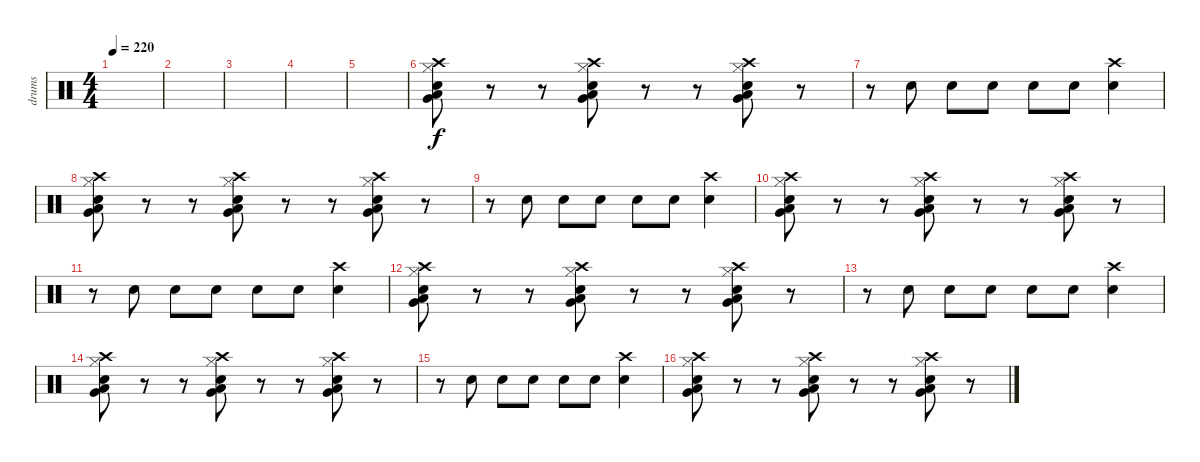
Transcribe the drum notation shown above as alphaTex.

\track ("drums" "drums") {instrument percussion}
\staff {score}
\articulation defaults
\ts (4 4)
\tempo 220
\clef neutral
\ks c
|
|
|
|
|
("Crash high (hit)" "Very Low Tom (hit)" "Low Floor Tom (hit)" "Electric Snare (hit)" "Hi-Hat (closed)").8 r.8 r.8 ("Crash high (hit)" "Very Low Tom (hit)" "Low Floor Tom (hit)" "Electric Snare (hit)" "Hi-Hat (closed)").8 r.8 r.8 ("Crash high (hit)" "Very Low Tom (hit)" "Low Floor Tom (hit)" "Electric Snare (hit)" "Hi-Hat (closed)").8 r.8 |
r.8 "Electric Snare (hit)".8 "Electric Snare (hit)".8 "Electric Snare (hit)".8 "Electric Snare (hit)".8 "Electric Snare (hit)".8 ("Electric Snare (hit)" "Crash high (hit)").4 |
("Crash high (hit)" "Very Low Tom (hit)" "Low Floor Tom (hit)" "Electric Snare (hit)" "Hi-Hat (closed)").8 r.8 r.8 ("Crash high (hit)" "Very Low Tom (hit)" "Low Floor Tom (hit)" "Electric Snare (hit)" "Hi-Hat (closed)").8 r.8 r.8 ("Crash high (hit)" "Very Low Tom (hit)" "Low Floor Tom (hit)" "Electric Snare (hit)" "Hi-Hat (closed)").8 r.8 |
r.8 "Electric Snare (hit)".8 "Electric Snare (hit)".8 "Electric Snare (hit)".8 "Electric Snare (hit)".8 "Electric Snare (hit)".8 ("Electric Snare (hit)" "Crash high (hit)").4 |
("Crash high (hit)" "Very Low Tom (hit)" "Low Floor Tom (hit)" "Electric Snare (hit)" "Hi-Hat (closed)").8 r.8 r.8 ("Crash high (hit)" "Very Low Tom (hit)" "Low Floor Tom (hit)" "Electric Snare (hit)" "Hi-Hat (closed)").8 r.8 r.8 ("Crash high (hit)" "Very Low Tom (hit)" "Low Floor Tom (hit)" "Electric Snare (hit)" "Hi-Hat (closed)").8 r.8 |
r.8 "Electric Snare (hit)".8 "Electric Snare (hit)".8 "Electric Snare (hit)".8 "Electric Snare (hit)".8 "Electric Snare (hit)".8 ("Electric Snare (hit)" "Crash high (hit)").4 |
("Crash high (hit)" "Very Low Tom (hit)" "Low Floor Tom (hit)" "Electric Snare (hit)" "Hi-Hat (closed)").8 r.8 r.8 ("Crash high (hit)" "Very Low Tom (hit)" "Low Floor Tom (hit)" "Electric Snare (hit)" "Hi-Hat (closed)").8 r.8 r.8 ("Crash high (hit)" "Very Low Tom (hit)" "Low Floor Tom (hit)" "Electric Snare (hit)" "Hi-Hat (closed)").8 r.8 |
r.8 "Electric Snare (hit)".8 "Electric Snare (hit)".8 "Electric Snare (hit)".8 "Electric Snare (hit)".8 "Electric Snare (hit)".8 ("Electric Snare (hit)" "Crash high (hit)").4 |
("Crash high (hit)" "Very Low Tom (hit)" "Low Floor Tom (hit)" "Electric Snare (hit)" "Hi-Hat (closed)").8 r.8 r.8 ("Crash high (hit)" "Very Low Tom (hit)" "Low Floor Tom (hit)" "Electric Snare (hit)" "Hi-Hat (closed)").8 r.8 r.8 ("Crash high (hit)" "Very Low Tom (hit)" "Low Floor Tom (hit)" "Electric Snare (hit)" "Hi-Hat (closed)").8 r.8 |
r.8 "Electric Snare (hit)".8 "Electric Snare (hit)".8 "Electric Snare (hit)".8 "Electric Snare (hit)".8 "Electric Snare (hit)".8 ("Electric Snare (hit)" "Crash high (hit)").4 |
("Crash high (hit)" "Very Low Tom (hit)" "Low Floor Tom (hit)" "Electric Snare (hit)" "Hi-Hat (closed)").8 r.8 r.8 ("Crash high (hit)" "Very Low Tom (hit)" "Low Floor Tom (hit)" "Electric Snare (hit)" "Hi-Hat (closed)").8 r.8 r.8 ("Crash high (hit)" "Very Low Tom (hit)" "Low Floor Tom (hit)" "Electric Snare (hit)" "Hi-Hat (closed)").8 r.8
